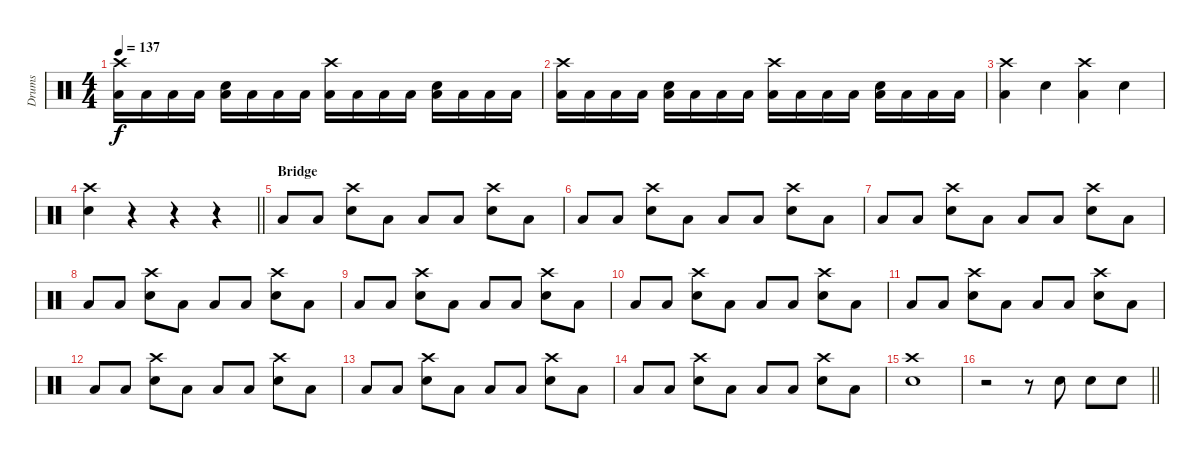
\track ("Drums" "Drums") {instrument percussion}
\staff {score}
\articulation defaults
\ts (4 4)
\tempo 137
\clef neutral
\ks c
("Crash high (hit)" "Low Floor Tom (hit)").16{dy f} "Low Floor Tom (hit)".16 "Low Floor Tom (hit)".16 "Low Floor Tom (hit)".16 ("Electric Snare (hit)" "Low Floor Tom (hit)").16 "Low Floor Tom (hit)".16 "Low Floor Tom (hit)".16 "Low Floor Tom (hit)".16 ("Crash high (hit)" "Low Floor Tom (hit)").16 "Low Floor Tom (hit)".16 "Low Floor Tom (hit)".16 "Low Floor Tom (hit)".16 ("Electric Snare (hit)" "Low Floor Tom (hit)").16 "Low Floor Tom (hit)".16 "Low Floor Tom (hit)".16 "Low Floor Tom (hit)".16 |
("Crash high (hit)" "Low Floor Tom (hit)").16 "Low Floor Tom (hit)".16 "Low Floor Tom (hit)".16 "Low Floor Tom (hit)".16 ("Electric Snare (hit)" "Low Floor Tom (hit)").16 "Low Floor Tom (hit)".16 "Low Floor Tom (hit)".16 "Low Floor Tom (hit)".16 ("Crash high (hit)" "Low Floor Tom (hit)").16 "Low Floor Tom (hit)".16 "Low Floor Tom (hit)".16 "Low Floor Tom (hit)".16 ("Electric Snare (hit)" "Low Floor Tom (hit)").16 "Low Floor Tom (hit)".16 "Low Floor Tom (hit)".16 "Low Floor Tom (hit)".16 |
("Crash high (hit)" "Low Floor Tom (hit)").4 "Electric Snare (hit)".4 ("Crash high (hit)" "Low Floor Tom (hit)").4 "Electric Snare (hit)".4 |
\barLineRight lightlight
("Crash high (hit)" "Electric Snare (hit)").4 r.4 r.4 r.4 |
\section ("" "Bridge")
"Low Floor Tom (hit)".8 "Low Floor Tom (hit)".8 ("Crash high (hit)" "Electric Snare (hit)").8 "Low Floor Tom (hit)".8 "Low Floor Tom (hit)".8 "Low Floor Tom (hit)".8 ("Crash high (hit)" "Electric Snare (hit)").8 "Low Floor Tom (hit)".8 |
"Low Floor Tom (hit)".8 "Low Floor Tom (hit)".8 ("Crash high (hit)" "Electric Snare (hit)").8 "Low Floor Tom (hit)".8 "Low Floor Tom (hit)".8 "Low Floor Tom (hit)".8 ("Crash high (hit)" "Electric Snare (hit)").8 "Low Floor Tom (hit)".8 |
"Low Floor Tom (hit)".8 "Low Floor Tom (hit)".8 ("Crash high (hit)" "Electric Snare (hit)").8 "Low Floor Tom (hit)".8 "Low Floor Tom (hit)".8 "Low Floor Tom (hit)".8 ("Crash high (hit)" "Electric Snare (hit)").8 "Low Floor Tom (hit)".8 |
"Low Floor Tom (hit)".8 "Low Floor Tom (hit)".8 ("Crash high (hit)" "Electric Snare (hit)").8 "Low Floor Tom (hit)".8 "Low Floor Tom (hit)".8 "Low Floor Tom (hit)".8 ("Crash high (hit)" "Electric Snare (hit)").8 "Low Floor Tom (hit)".8 |
"Low Floor Tom (hit)".8 "Low Floor Tom (hit)".8 ("Crash high (hit)" "Electric Snare (hit)").8 "Low Floor Tom (hit)".8 "Low Floor Tom (hit)".8 "Low Floor Tom (hit)".8 ("Crash high (hit)" "Electric Snare (hit)").8 "Low Floor Tom (hit)".8 |
"Low Floor Tom (hit)".8 "Low Floor Tom (hit)".8 ("Crash high (hit)" "Electric Snare (hit)").8 "Low Floor Tom (hit)".8 "Low Floor Tom (hit)".8 "Low Floor Tom (hit)".8 ("Crash high (hit)" "Electric Snare (hit)").8 "Low Floor Tom (hit)".8 |
"Low Floor Tom (hit)".8 "Low Floor Tom (hit)".8 ("Crash high (hit)" "Electric Snare (hit)").8 "Low Floor Tom (hit)".8 "Low Floor Tom (hit)".8 "Low Floor Tom (hit)".8 ("Crash high (hit)" "Electric Snare (hit)").8 "Low Floor Tom (hit)".8 |
"Low Floor Tom (hit)".8 "Low Floor Tom (hit)".8 ("Crash high (hit)" "Electric Snare (hit)").8 "Low Floor Tom (hit)".8 "Low Floor Tom (hit)".8 "Low Floor Tom (hit)".8 ("Crash high (hit)" "Electric Snare (hit)").8 "Low Floor Tom (hit)".8 |
"Low Floor Tom (hit)".8 "Low Floor Tom (hit)".8 ("Crash high (hit)" "Electric Snare (hit)").8 "Low Floor Tom (hit)".8 "Low Floor Tom (hit)".8 "Low Floor Tom (hit)".8 ("Crash high (hit)" "Electric Snare (hit)").8 "Low Floor Tom (hit)".8 |
"Low Floor Tom (hit)".8 "Low Floor Tom (hit)".8 ("Crash high (hit)" "Electric Snare (hit)").8 "Low Floor Tom (hit)".8 "Low Floor Tom (hit)".8 "Low Floor Tom (hit)".8 ("Crash high (hit)" "Electric Snare (hit)").8 "Low Floor Tom (hit)".8 |
("Crash high (hit)" "Electric Snare (hit)").1 |
\barLineRight lightlight
r.2 r.8 "Electric Snare (hit)".8 "Electric Snare (hit)".8 "Electric Snare (hit)".8
